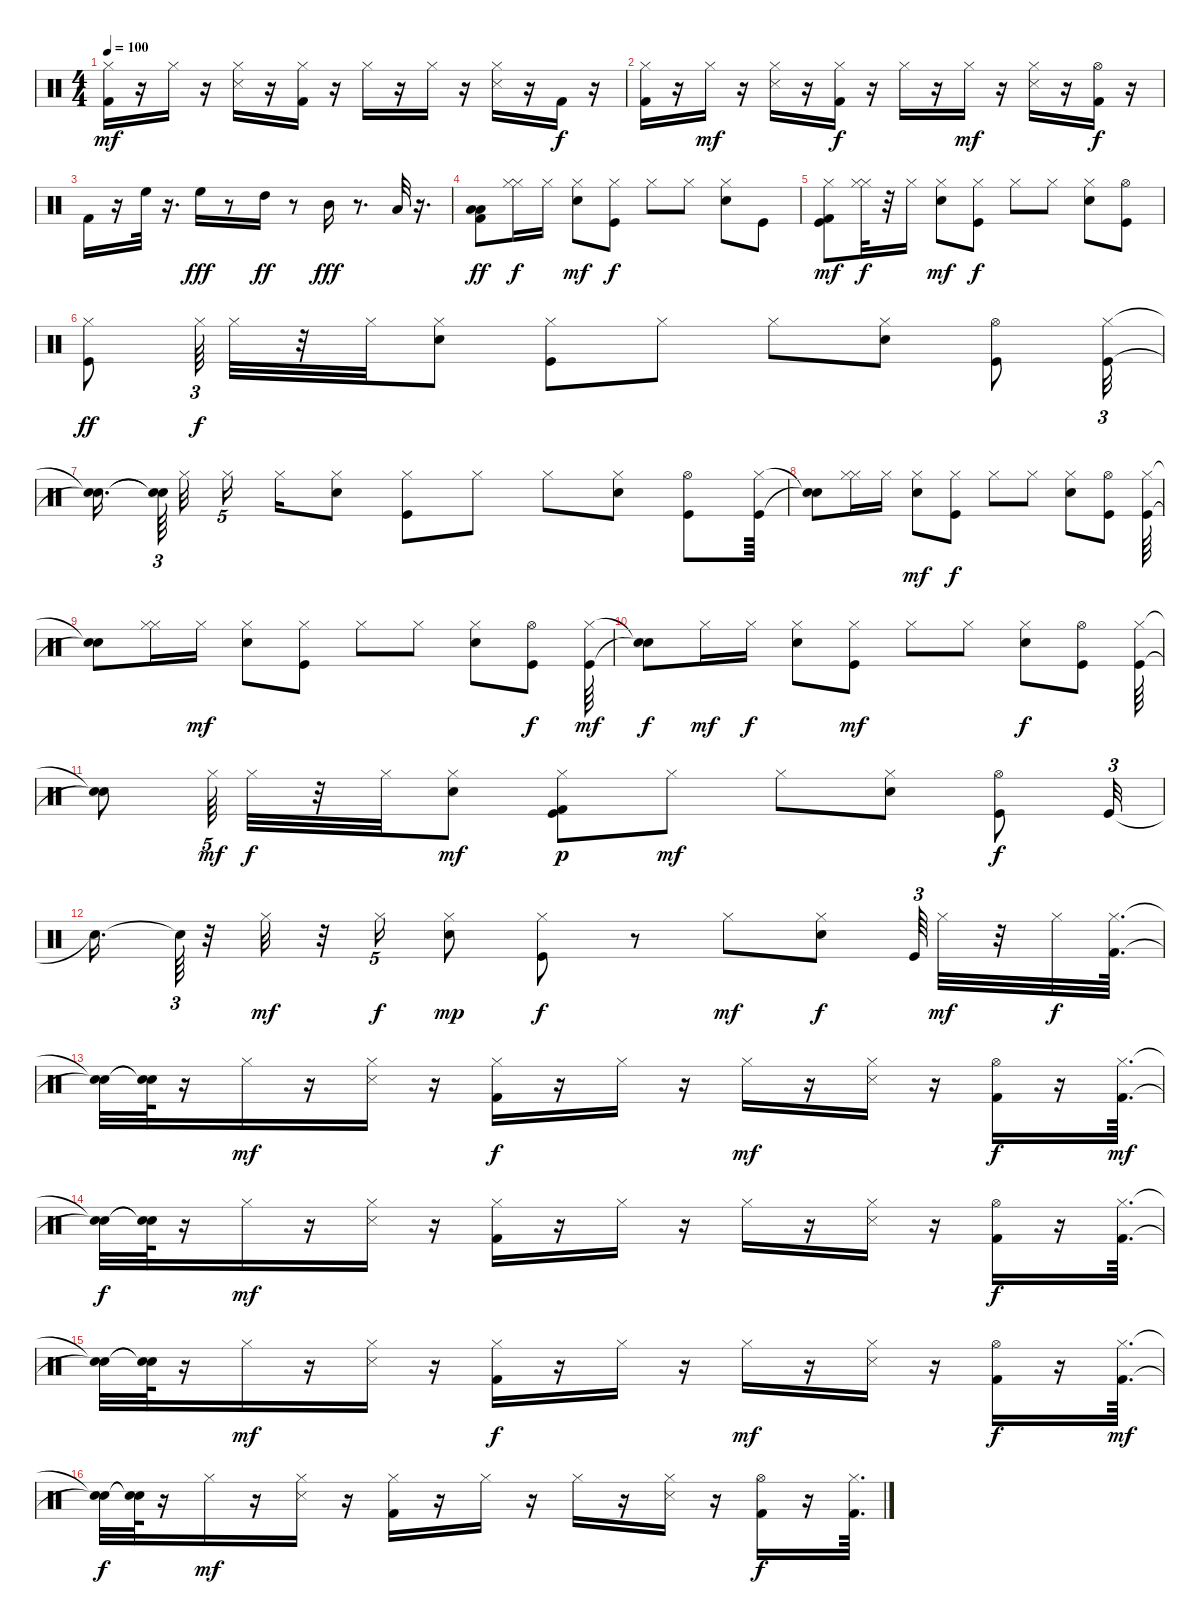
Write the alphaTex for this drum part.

\track "" {instrument percussion}
\staff {score}
\articulation defaults
\ts (4 4)
\tempo 100
\clef neutral
\ks c
("Kick (hit) 2" "Hi-Hat (closed)").16{dy mf} r.16 "Hi-Hat (closed)".16 r.16 ("Hi-Hat (closed)" "Snare (side stick) 3").16 r.16 ("Kick (hit) 2" "Hi-Hat (closed)").16 r.16 "Hi-Hat (closed)".16 r.16 "Hi-Hat (closed)".16 r.16 ("Hi-Hat (closed)" "Snare (side stick) 3").16 r.16 "Kick (hit) 2".16{dy f} r.16 |
("Hi-Hat (closed)" "Kick (hit) 2").16 r.16 "Hi-Hat (closed)".16{dy mf} r.16 ("Hi-Hat (closed)" "Snare (side stick) 3").16 r.16 ("Kick (hit) 2" "Hi-Hat (closed)").16{dy f} r.16 "Hi-Hat (closed)".16 r.16 "Hi-Hat (closed)".16{dy mf} r.16 ("Hi-Hat (closed)" "Snare (side stick) 3").16 r.16 ("Kick (hit) 2" "Hi-Hat (open)").16{dy f} r.16 |
"Kick (hit) 2".16 r.16 "High Floor Tom (hit)".32 r.16{d} "High Floor Tom (hit)".16{dy fff} r.8 "High Tom (hit)".16{dy ff} r.8 "Mid Tom (hit)".16{dy fff} r.8{d} "Low Tom (hit)".32 r.16{d} |
("Low Floor Tom (hit)" "Kick (hit) 2" "Low Tom (hit)").8{dy ff} ("Hi-Hat (closed)" "Hi-Hat (closed)").16{dy f} "Hi-Hat (closed)".16 ("Hi-Hat (closed)" "Snare (hit) 2").8{dy mf} ("Kick (hit)" "Hi-Hat (closed)").8{dy f} "Hi-Hat (closed)".8 "Hi-Hat (closed)".8 ("Hi-Hat (closed)" "Snare (hit) 2").8 "Kick (hit)".8 |
("Kick (hit)" "Kick (hit) 2" "Hi-Hat (closed)").8{dy mf} ("Hi-Hat (closed)" "Hi-Hat (closed)").32{dy f} r.32 "Hi-Hat (closed)".16 ("Hi-Hat (closed)" "Snare (hit) 2").8{dy mf} ("Kick (hit)" "Hi-Hat (closed)").8{dy f} "Hi-Hat (closed)".8 "Hi-Hat (closed)".8 ("Snare (hit) 2" "Hi-Hat (closed)").8 ("Kick (hit)" "Hi-Hat (open)").8 |
("Kick (hit)" "Hi-Hat (closed)").8{dy ff} "Hi-Hat (closed)".64{tu (3 2) dy f beam splitsecondary} "Hi-Hat (closed)".32 r.32 "Hi-Hat (closed)".32 ("Snare (hit) 2" "Hi-Hat (closed)").8 ("Kick (hit)" "Hi-Hat (closed)").8 "Hi-Hat (closed)".8 "Hi-Hat (closed)".8 ("Snare (hit) 2" "Hi-Hat (closed)").8 ("Kick (hit)" "Hi-Hat (open)").8 ("Kick (hit)" "Hi-Hat (closed)").32{tu (3 2)} |
("Snare (hit)"{t} "Snare (hit)"{t}).16{d beam splitsecondary} ("Snare (hit)"{t} "Snare (hit)"{t}).64{tu (3 2) beam splitsecondary} "Hi-Hat (closed)".32{beam splitsecondary} "Hi-Hat (closed)".16{tu (5 4) beam splitsecondary} "Hi-Hat (closed)".16 ("Snare (hit) 2" "Hi-Hat (closed)").8 ("Kick (hit)" "Hi-Hat (closed)").8 "Hi-Hat (closed)".8 "Hi-Hat (closed)".8 ("Snare (hit) 2" "Hi-Hat (closed)").8 ("Hi-Hat (open)" "Kick (hit)").8 ("Hi-Hat (closed)" "Kick (hit)").64 |
("Snare (hit)"{t} "Snare (hit)"{t}).8 ("Hi-Hat (closed)" "Hi-Hat (closed)").16 "Hi-Hat (closed)".16 ("Hi-Hat (closed)" "Snare (hit) 2").8{dy mf} ("Kick (hit)" "Hi-Hat (closed)").8{dy f} "Hi-Hat (closed)".8 "Hi-Hat (closed)".8 ("Hi-Hat (closed)" "Snare (hit) 2").8 ("Hi-Hat (open)" "Kick (hit)").8 ("Hi-Hat (closed)" "Kick (hit)").64 |
("Snare (hit)"{t} "Snare (hit)"{t}).8 ("Hi-Hat (closed)" "Hi-Hat (closed)").16 "Hi-Hat (closed)".16{dy mf} ("Hi-Hat (closed)" "Snare (hit) 2").8 ("Kick (hit)" "Hi-Hat (closed)").8 "Hi-Hat (closed)".8 "Hi-Hat (closed)".8 ("Hi-Hat (closed)" "Snare (hit) 2").8 ("Hi-Hat (open)" "Kick (hit)").8{dy f} ("Hi-Hat (closed)" "Kick (hit)").64{dy mf} |
("Snare (hit)"{t} "Snare (hit)"{t}).8{dy f} "Hi-Hat (closed)".16{dy mf} "Hi-Hat (closed)".16{dy f} ("Hi-Hat (closed)" "Snare (hit) 2").8 ("Kick (hit)" "Hi-Hat (closed)").8{dy mf} "Hi-Hat (closed)".8 "Hi-Hat (closed)".8 ("Snare (hit) 2" "Hi-Hat (closed)").8{dy f} ("Kick (hit)" "Hi-Hat (open)").8 ("Kick (hit)" "Hi-Hat (closed)").64 |
("Snare (hit)"{t} "Snare (hit)"{t}).8 "Hi-Hat (closed)".64{tu (5 4) dy mf beam splitsecondary} "Hi-Hat (closed)".32{dy f} r.32 "Hi-Hat (closed)".32 ("Snare (hit) 2" "Hi-Hat (closed)").8{dy mf} ("Kick (hit)" "Hi-Hat (closed)" "Kick (hit) 2").8{dy p} "Hi-Hat (closed)".8{dy mf} "Hi-Hat (closed)".8 ("Snare (hit) 2" "Hi-Hat (closed)").8 ("Hi-Hat (open)" "Kick (hit)").8{dy f} "Kick (hit)".32{tu (3 2)} |
"Snare (hit)"{t}.16{d} "Snare (hit)"{t}.64{tu (3 2)} r.32 "Hi-Hat (closed)".32{dy mf} r.32 "Hi-Hat (closed)".16{tu (5 4) dy f} ("Hi-Hat (closed)" "Snare (hit) 2").8{dy mp} ("Kick (hit)" "Hi-Hat (closed)").8{dy f} r.8 "Hi-Hat (closed)".8{dy mf} ("Snare (hit) 2" "Hi-Hat (closed)").8{dy f} "Kick (hit)".64{tu (3 2)} "Hi-Hat (closed)".32{dy mf} r.32 "Hi-Hat (closed)".32{dy f} ("Hi-Hat (closed)" "Kick (hit) 2").64{d} |
("Snare (hit)"{t} "Snare (hit)"{t}).32 ("Snare (hit)"{t} "Snare (hit)"{t}).64 r.16 "Hi-Hat (closed)".16{dy mf} r.16 ("Hi-Hat (closed)" "Snare (side stick) 3").16 r.16 ("Kick (hit) 2" "Hi-Hat (closed)").16{dy f} r.16 "Hi-Hat (closed)".16 r.16 "Hi-Hat (closed)".16{dy mf} r.16 ("Hi-Hat (closed)" "Snare (side stick) 3").16 r.16 ("Kick (hit) 2" "Hi-Hat (open)").16{dy f} r.16 ("Kick (hit) 2" "Hi-Hat (closed)").64{d dy mf} |
("Snare (hit)"{t} "Snare (hit)"{t}).32{dy f} ("Snare (hit)"{t} "Snare (hit)"{t}).64 r.16 "Hi-Hat (closed)".16{dy mf} r.16 ("Hi-Hat (closed)" "Snare (side stick) 3").16 r.16 ("Kick (hit) 2" "Hi-Hat (closed)").16 r.16 "Hi-Hat (closed)".16 r.16 "Hi-Hat (closed)".16 r.16 ("Hi-Hat (closed)" "Snare (side stick) 3").16 r.16 ("Hi-Hat (open)" "Kick (hit) 2").16{dy f} r.16 ("Hi-Hat (closed)" "Kick (hit) 2").64{d} |
("Snare (hit)"{t} "Snare (hit)"{t}).32 ("Snare (hit)"{t} "Snare (hit)"{t}).64 r.16 "Hi-Hat (closed)".16{dy mf} r.16 ("Hi-Hat (closed)" "Snare (side stick) 3").16 r.16 ("Kick (hit) 2" "Hi-Hat (closed)").16{dy f} r.16 "Hi-Hat (closed)".16 r.16 "Hi-Hat (closed)".16{dy mf} r.16 ("Hi-Hat (closed)" "Snare (side stick) 3").16 r.16 ("Kick (hit) 2" "Hi-Hat (open)").16{dy f} r.16 ("Kick (hit) 2" "Hi-Hat (closed)").64{d dy mf} |
("Snare (hit)"{t} "Snare (hit)"{t}).32{dy f} ("Snare (hit)"{t} "Snare (hit)"{t}).64 r.16 "Hi-Hat (closed)".16{dy mf} r.16 ("Hi-Hat (closed)" "Snare (side stick) 3").16 r.16 ("Kick (hit) 2" "Hi-Hat (closed)").16 r.16 "Hi-Hat (closed)".16 r.16 "Hi-Hat (closed)".16 r.16 ("Hi-Hat (closed)" "Snare (side stick) 3").16 r.16 ("Hi-Hat (open)" "Kick (hit) 2").16{dy f} r.16 ("Hi-Hat (closed)" "Kick (hit) 2").64{d}
